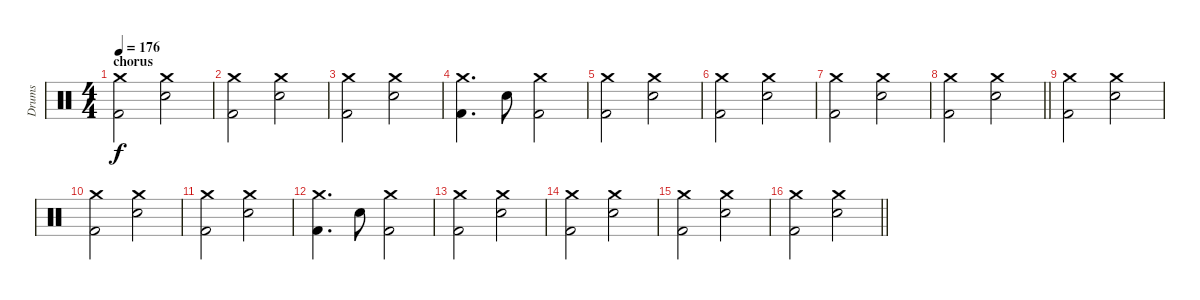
\track ("Drums" "Drums") {instrument percussion}
\staff {score}
\articulation defaults
\ts (4 4)
\section ("" "chorus")
\tempo 176
\clef neutral
\ks c
("Crash medium (hit)" "Kick (hit) 2").2{dy f} ("Crash medium (hit)" "Electric Snare (hit)").2 |
("Crash medium (hit)" "Kick (hit) 2").2 ("Crash medium (hit)" "Electric Snare (hit)").2 |
("Crash medium (hit)" "Kick (hit) 2").2 ("Crash medium (hit)" "Electric Snare (hit)").2 |
("Crash medium (hit)" "Kick (hit) 2").4{d} "Electric Snare (hit)".8 ("Crash medium (hit)" "Kick (hit) 2").2 |
("Crash medium (hit)" "Kick (hit) 2").2 ("Crash medium (hit)" "Electric Snare (hit)").2 |
("Crash medium (hit)" "Kick (hit) 2").2 ("Crash medium (hit)" "Electric Snare (hit)").2 |
("Crash medium (hit)" "Kick (hit) 2").2 ("Crash medium (hit)" "Electric Snare (hit)").2 |
\barLineRight lightlight
("Crash medium (hit)" "Kick (hit) 2").2 ("Crash medium (hit)" "Electric Snare (hit)").2 |
("Crash medium (hit)" "Kick (hit) 2").2 ("Crash medium (hit)" "Electric Snare (hit)").2 |
("Crash medium (hit)" "Kick (hit) 2").2 ("Crash medium (hit)" "Electric Snare (hit)").2 |
("Crash medium (hit)" "Kick (hit) 2").2 ("Crash medium (hit)" "Electric Snare (hit)").2 |
("Crash medium (hit)" "Kick (hit) 2").4{d} "Electric Snare (hit)".8 ("Crash medium (hit)" "Kick (hit) 2").2 |
("Crash medium (hit)" "Kick (hit) 2").2 ("Crash medium (hit)" "Electric Snare (hit)").2 |
("Crash medium (hit)" "Kick (hit) 2").2 ("Crash medium (hit)" "Electric Snare (hit)").2 |
("Crash medium (hit)" "Kick (hit) 2").2 ("Crash medium (hit)" "Electric Snare (hit)").2 |
\barLineRight lightlight
("Crash medium (hit)" "Kick (hit) 2").2 ("Crash medium (hit)" "Electric Snare (hit)").2
